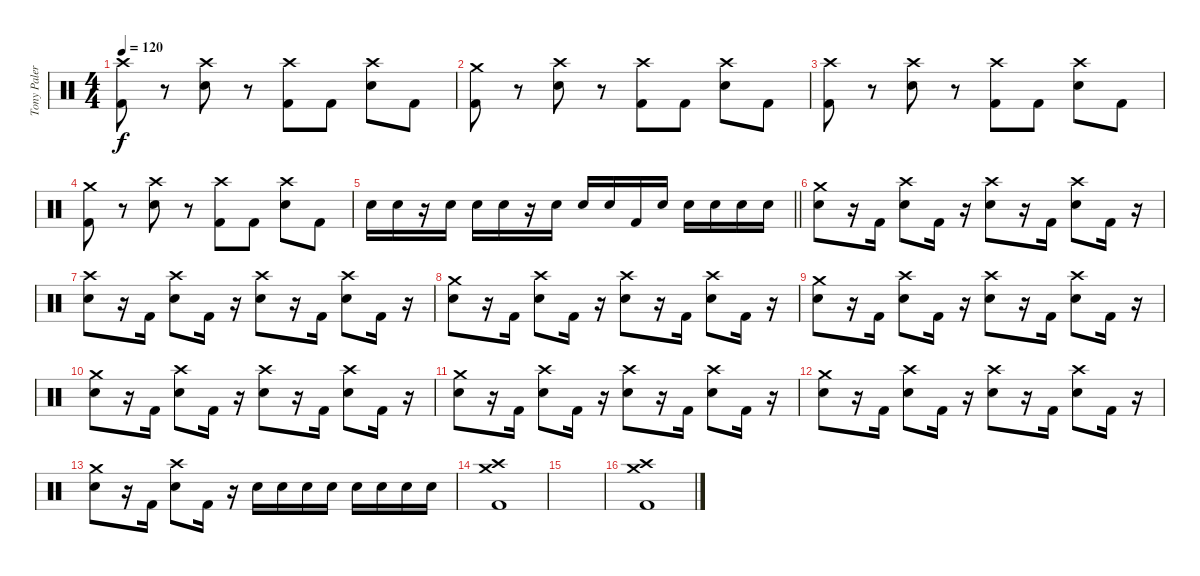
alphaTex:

\track ("Tony Palermo " "Tony Paler") {instrument percussion}
\staff {score}
\articulation defaults
\ts (4 4)
\tempo 120
\clef neutral
\ks c
("Crash high (hit)" "Kick (hit) 2").8{dy f} r.8 ("Crash high (hit)" "Snare (hit) 2").8 r.8 ("Crash high (hit)" "Kick (hit) 2").8 "Kick (hit) 2".8 ("Crash high (hit)" "Snare (hit) 2").8 "Kick (hit) 2".8 |
("Crash medium (hit)" "Kick (hit) 2").8 r.8 ("Crash high (hit)" "Snare (hit) 2").8 r.8 ("Crash high (hit)" "Kick (hit) 2").8 "Kick (hit) 2".8 ("Crash high (hit)" "Snare (hit) 2").8 "Kick (hit) 2".8 |
("Crash high (hit)" "Kick (hit) 2").8 r.8 ("Crash high (hit)" "Snare (hit) 2").8 r.8 ("Crash high (hit)" "Kick (hit) 2").8 "Kick (hit) 2".8 ("Crash high (hit)" "Snare (hit) 2").8 "Kick (hit) 2".8 |
("Crash medium (hit)" "Kick (hit) 2").8 r.8 ("Crash high (hit)" "Snare (hit) 2").8 r.8 ("Crash high (hit)" "Kick (hit) 2").8 "Kick (hit) 2".8 ("Crash high (hit)" "Snare (hit) 2").8 "Kick (hit) 2".8 |
\barLineRight lightlight "Snare (hit) 2".16 "Snare (hit) 2".16
r.16 "Snare (hit) 2".16 "Snare (hit) 2".16 "Snare (hit) 2".16 r.16 "Snare (hit) 2".16 "Snare (hit) 2".16 "Snare (hit) 2".16 "Kick (hit) 2".16 "Snare (hit) 2".16 "Snare (hit) 2".16 "Snare (hit) 2".16 "Snare (hit) 2".16 "Snare (hit) 2".16 |
("Crash medium (hit)" "Snare (hit) 2").8 r.16 "Kick (hit) 2".16 ("Crash high (hit)" "Snare (hit) 2").8 "Kick (hit) 2".16 r.16 ("Crash high (hit)" "Snare (hit) 2").8 r.16 "Kick (hit) 2".16 ("Crash high (hit)" "Snare (hit) 2").8 "Kick (hit) 2".16 r.16 |
("Crash high (hit)" "Snare (hit) 2").8 r.16 "Kick (hit) 2".16 ("Crash high (hit)" "Snare (hit) 2").8 "Kick (hit) 2".16 r.16 ("Crash high (hit)" "Snare (hit) 2").8 r.16 "Kick (hit) 2".16 ("Crash high (hit)" "Snare (hit) 2").8 "Kick (hit) 2".16 r.16 |
("Crash medium (hit)" "Snare (hit) 2").8 r.16 "Kick (hit) 2".16 ("Crash high (hit)" "Snare (hit) 2").8 "Kick (hit) 2".16 r.16 ("Crash high (hit)" "Snare (hit) 2").8 r.16 "Kick (hit) 2".16 ("Crash high (hit)" "Snare (hit) 2").8 "Kick (hit) 2".16 r.16 |
("Crash medium (hit)" "Snare (hit) 2").8 r.16 "Kick (hit) 2".16 ("Crash high (hit)" "Snare (hit) 2").8 "Kick (hit) 2".16 r.16 ("Crash high (hit)" "Snare (hit) 2").8 r.16 "Kick (hit) 2".16 ("Crash high (hit)" "Snare (hit) 2").8 "Kick (hit) 2".16 r.16 |
("Crash medium (hit)" "Snare (hit) 2").8 r.16 "Kick (hit) 2".16 ("Crash high (hit)" "Snare (hit) 2").8 "Kick (hit) 2".16 r.16 ("Crash high (hit)" "Snare (hit) 2").8 r.16 "Kick (hit) 2".16 ("Crash high (hit)" "Snare (hit) 2").8 "Kick (hit) 2".16 r.16 |
("Crash medium (hit)" "Snare (hit) 2").8 r.16 "Kick (hit) 2".16 ("Crash high (hit)" "Snare (hit) 2").8 "Kick (hit) 2".16 r.16 ("Crash high (hit)" "Snare (hit) 2").8 r.16 "Kick (hit) 2".16 ("Crash high (hit)" "Snare (hit) 2").8 "Kick (hit) 2".16 r.16 |
("Crash medium (hit)" "Snare (hit) 2").8 r.16 "Kick (hit) 2".16 ("Crash high (hit)" "Snare (hit) 2").8 "Kick (hit) 2".16 r.16 ("Crash high (hit)" "Snare (hit) 2").8 r.16 "Kick (hit) 2".16 ("Crash high (hit)" "Snare (hit) 2").8 "Kick (hit) 2".16 r.16 |
("Crash medium (hit)" "Snare (hit) 2").8 r.16 "Kick (hit) 2".16 ("Crash high (hit)" "Snare (hit) 2").8 "Kick (hit) 2".16 r.16 "Snare (hit) 2".16 "Snare (hit) 2".16 "Snare (hit) 2".16 "Snare (hit) 2".16 "Snare (hit) 2".16 "Snare (hit) 2".16 "Snare (hit) 2".16 "Snare (hit) 2".16 |
("Kick (hit) 2" "Crash high (hit)" "Crash medium (hit)").1 |
|
("Kick (hit) 2" "Crash high (hit)" "Crash medium (hit)").1
